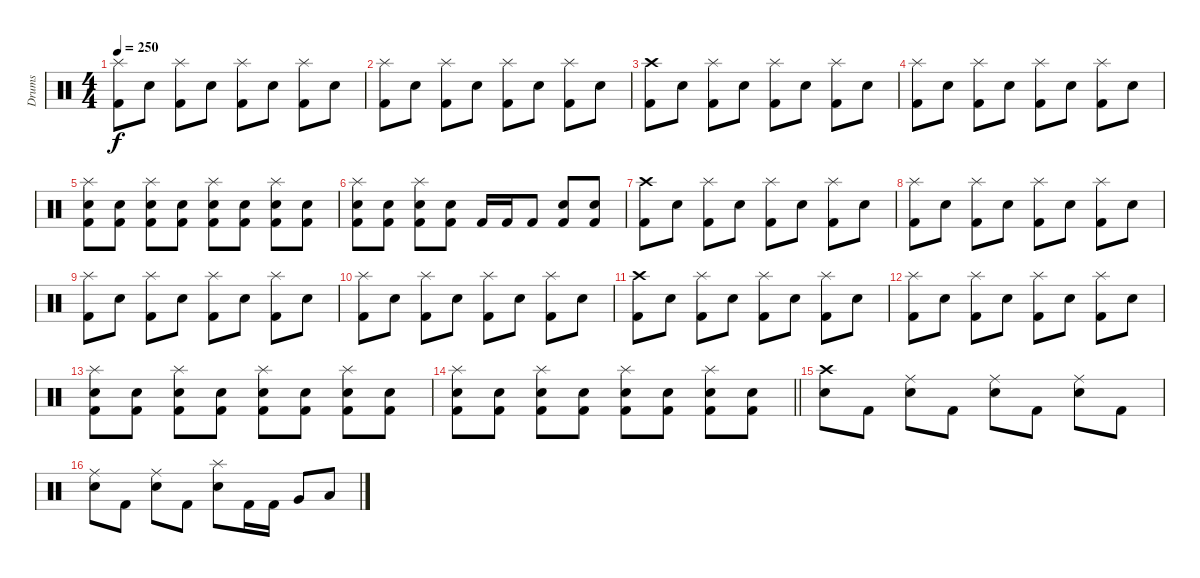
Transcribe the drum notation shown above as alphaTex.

\track ("Drums" "Drums") {instrument percussion}
\staff {score}
\articulation defaults
\ts (4 4)
\tempo 250
\clef neutral
\ks c
("Splash (hit)" "Kick (hit) 2").8{dy f} "Electric Snare (hit)".8 ("Splash (hit)" "Kick (hit) 2").8 "Electric Snare (hit)".8 ("Splash (hit)" "Kick (hit) 2").8 "Electric Snare (hit)".8 ("Splash (hit)" "Kick (hit) 2").8 "Electric Snare (hit)".8 |
("Splash (hit)" "Kick (hit) 2").8 "Electric Snare (hit)".8 ("Splash (hit)" "Kick (hit) 2").8 "Electric Snare (hit)".8 ("Splash (hit)" "Kick (hit) 2").8 "Electric Snare (hit)".8 ("Splash (hit)" "Kick (hit) 2").8 "Electric Snare (hit)".8 |
("Crash high (hit)" "Kick (hit) 2").8 "Electric Snare (hit)".8 ("Splash (hit)" "Kick (hit) 2").8 "Electric Snare (hit)".8 ("Splash (hit)" "Kick (hit) 2").8 "Electric Snare (hit)".8 ("Splash (hit)" "Kick (hit) 2").8 "Electric Snare (hit)".8 |
("Splash (hit)" "Kick (hit) 2").8 "Electric Snare (hit)".8 ("Splash (hit)" "Kick (hit) 2").8 "Electric Snare (hit)".8 ("Splash (hit)" "Kick (hit) 2").8 "Electric Snare (hit)".8 ("Splash (hit)" "Kick (hit) 2").8 "Electric Snare (hit)".8 |
("Splash (hit)" "Electric Snare (hit)" "Kick (hit) 2").8 ("Electric Snare (hit)" "Kick (hit) 2").8 ("Splash (hit)" "Electric Snare (hit)" "Kick (hit) 2").8 ("Electric Snare (hit)" "Kick (hit) 2").8 ("Splash (hit)" "Electric Snare (hit)" "Kick (hit) 2").8 ("Electric Snare (hit)" "Kick (hit) 2").8 ("Splash (hit)" "Electric Snare (hit)" "Kick (hit) 2").8 ("Electric Snare (hit)" "Kick (hit) 2").8 |
("Splash (hit)" "Electric Snare (hit)" "Kick (hit) 2").8 ("Electric Snare (hit)" "Kick (hit) 2").8 ("Splash (hit)" "Electric Snare (hit)" "Kick (hit) 2").8 ("Electric Snare (hit)" "Kick (hit) 2").8 "Kick (hit) 2".16 "Kick (hit) 2".16 "Kick (hit) 2".8 ("Electric Snare (hit)" "Kick (hit) 2").8 ("Electric Snare (hit)" "Kick (hit) 2").8 |
("Crash high (hit)" "Kick (hit) 2").8 "Electric Snare (hit)".8 ("Splash (hit)" "Kick (hit) 2").8 "Electric Snare (hit)".8 ("Splash (hit)" "Kick (hit) 2").8 "Electric Snare (hit)".8 ("Splash (hit)" "Kick (hit) 2").8 "Electric Snare (hit)".8 |
("Splash (hit)" "Kick (hit) 2").8 "Electric Snare (hit)".8 ("Splash (hit)" "Kick (hit) 2").8 "Electric Snare (hit)".8 ("Splash (hit)" "Kick (hit) 2").8 "Electric Snare (hit)".8 ("Splash (hit)" "Kick (hit) 2").8 "Electric Snare (hit)".8 |
("Splash (hit)" "Kick (hit) 2").8 "Electric Snare (hit)".8 ("Splash (hit)" "Kick (hit) 2").8 "Electric Snare (hit)".8 ("Splash (hit)" "Kick (hit) 2").8 "Electric Snare (hit)".8 ("Splash (hit)" "Kick (hit) 2").8 "Electric Snare (hit)".8 |
("Splash (hit)" "Kick (hit) 2").8 "Electric Snare (hit)".8 ("Splash (hit)" "Kick (hit) 2").8 "Electric Snare (hit)".8 ("Splash (hit)" "Kick (hit) 2").8 "Electric Snare (hit)".8 ("Splash (hit)" "Kick (hit) 2").8 "Electric Snare (hit)".8 |
("Crash high (hit)" "Kick (hit) 2").8 "Electric Snare (hit)".8 ("Splash (hit)" "Kick (hit) 2").8 "Electric Snare (hit)".8 ("Splash (hit)" "Kick (hit) 2").8 "Electric Snare (hit)".8 ("Splash (hit)" "Kick (hit) 2").8 "Electric Snare (hit)".8 |
("Splash (hit)" "Kick (hit) 2").8 "Electric Snare (hit)".8 ("Splash (hit)" "Kick (hit) 2").8 "Electric Snare (hit)".8 ("Splash (hit)" "Kick (hit) 2").8 "Electric Snare (hit)".8 ("Splash (hit)" "Kick (hit) 2").8 "Electric Snare (hit)".8 |
("Splash (hit)" "Electric Snare (hit)" "Kick (hit) 2").8 ("Electric Snare (hit)" "Kick (hit) 2").8 ("Splash (hit)" "Electric Snare (hit)" "Kick (hit) 2").8 ("Electric Snare (hit)" "Kick (hit) 2").8 ("Splash (hit)" "Electric Snare (hit)" "Kick (hit) 2").8 ("Electric Snare (hit)" "Kick (hit) 2").8 ("Splash (hit)" "Electric Snare (hit)" "Kick (hit) 2").8 ("Electric Snare (hit)" "Kick (hit) 2").8 |
\barLineRight lightlight
("Splash (hit)" "Electric Snare (hit)" "Kick (hit) 2").8 ("Electric Snare (hit)" "Kick (hit) 2").8 ("Splash (hit)" "Electric Snare (hit)" "Kick (hit) 2").8 ("Electric Snare (hit)" "Kick (hit) 2").8 ("Splash (hit)" "Electric Snare (hit)" "Kick (hit) 2").8 ("Electric Snare (hit)" "Kick (hit) 2").8 ("Splash (hit)" "Electric Snare (hit)" "Kick (hit) 2").8 ("Electric Snare (hit)" "Kick (hit) 2").8 |
("Crash high (hit)" "Electric Snare (hit)").8 "Kick (hit) 2".8 ("Ride (middle)" "Electric Snare (hit)").8 "Kick (hit) 2".8 ("Ride (middle)" "Electric Snare (hit)").8 "Kick (hit) 2".8 ("Ride (middle)" "Electric Snare (hit)").8 "Kick (hit) 2".8 |
("Ride (middle)" "Electric Snare (hit)").8 "Kick (hit) 2".8 ("Ride (middle)" "Electric Snare (hit)").8 "Kick (hit) 2".8 ("Splash (hit)" "Electric Snare (hit)").8 "Kick (hit) 2".16 "Kick (hit) 2".16 "Very Low Tom (hit)".8 "Low Floor Tom (hit)".8
